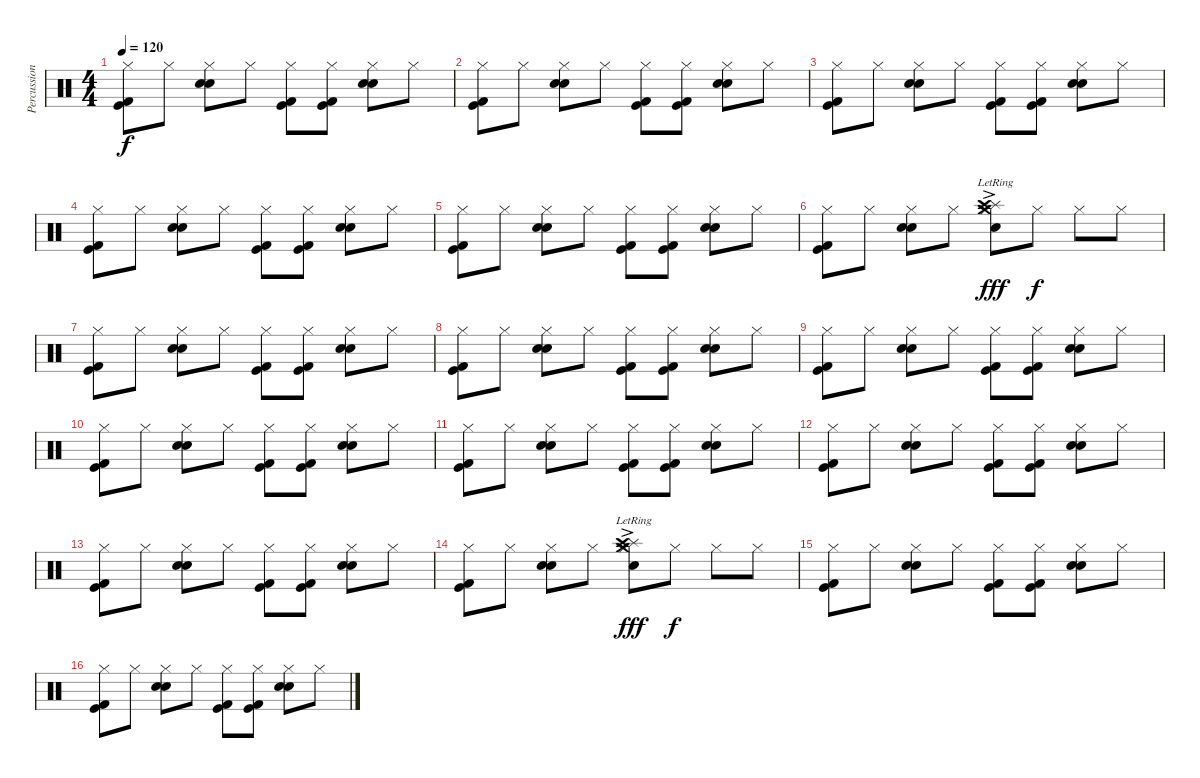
\track ("Percussions" "Percussion") {instrument percussion}
\staff {score}
\articulation defaults
\ts (4 4)
\tempo 120
\clef neutral
\ks c
("Hi-Hat (closed)" "Kick (hit)" "Kick (hit) 2").8{dy f} "Hi-Hat (closed)".8 ("Hi-Hat (closed)" "Snare (hit) 2" "Electric Snare (hit)").8 "Hi-Hat (closed)".8 ("Hi-Hat (closed)" "Kick (hit)" "Kick (hit) 2").8 ("Hi-Hat (closed)" "Kick (hit)" "Kick (hit) 2").8 ("Hi-Hat (closed)" "Snare (hit) 2" "Electric Snare (hit)").8 "Hi-Hat (closed)".8 |
("Hi-Hat (closed)" "Kick (hit)" "Kick (hit) 2").8 "Hi-Hat (closed)".8 ("Hi-Hat (closed)" "Snare (hit) 2" "Electric Snare (hit)").8 "Hi-Hat (closed)".8 ("Hi-Hat (closed)" "Kick (hit)" "Kick (hit) 2").8 ("Hi-Hat (closed)" "Kick (hit)" "Kick (hit) 2").8 ("Hi-Hat (closed)" "Snare (hit) 2" "Electric Snare (hit)").8 "Hi-Hat (closed)".8 |
("Hi-Hat (closed)" "Kick (hit)" "Kick (hit) 2").8 "Hi-Hat (closed)".8 ("Hi-Hat (closed)" "Snare (hit) 2" "Electric Snare (hit)").8 "Hi-Hat (closed)".8 ("Hi-Hat (closed)" "Kick (hit)" "Kick (hit) 2").8 ("Hi-Hat (closed)" "Kick (hit)" "Kick (hit) 2").8 ("Hi-Hat (closed)" "Snare (hit) 2" "Electric Snare (hit)").8 "Hi-Hat (closed)".8 |
("Hi-Hat (closed)" "Kick (hit)" "Kick (hit) 2").8 "Hi-Hat (closed)".8 ("Hi-Hat (closed)" "Snare (hit) 2" "Electric Snare (hit)").8 "Hi-Hat (closed)".8 ("Hi-Hat (closed)" "Kick (hit)" "Kick (hit) 2").8 ("Hi-Hat (closed)" "Kick (hit)" "Kick (hit) 2").8 ("Hi-Hat (closed)" "Snare (hit) 2" "Electric Snare (hit)").8 "Hi-Hat (closed)".8 |
("Hi-Hat (closed)" "Kick (hit)" "Kick (hit) 2").8 "Hi-Hat (closed)".8 ("Hi-Hat (closed)" "Snare (hit) 2" "Electric Snare (hit)").8 "Hi-Hat (closed)".8 ("Hi-Hat (closed)" "Kick (hit)" "Kick (hit) 2").8 ("Hi-Hat (closed)" "Kick (hit)" "Kick (hit) 2").8 ("Hi-Hat (closed)" "Snare (hit) 2" "Electric Snare (hit)").8 "Hi-Hat (closed)".8 |
("Hi-Hat (closed)" "Kick (hit)" "Kick (hit) 2").8 "Hi-Hat (closed)".8 ("Hi-Hat (closed)" "Snare (hit) 2" "Electric Snare (hit)").8 "Hi-Hat (closed)".8 ("Hi-Hat (closed)" "Splash (hit)" "Crash medium (hit)" "Crash high (hit)"{ac lr} "Snare (hit)").8{dy fff} "Hi-Hat (closed)".8{dy f} "Hi-Hat (closed)".8 "Hi-Hat (closed)".8 |
("Hi-Hat (closed)" "Kick (hit)" "Kick (hit) 2").8 "Hi-Hat (closed)".8 ("Hi-Hat (closed)" "Snare (hit) 2" "Electric Snare (hit)").8 "Hi-Hat (closed)".8 ("Hi-Hat (closed)" "Kick (hit)" "Kick (hit) 2").8 ("Hi-Hat (closed)" "Kick (hit)" "Kick (hit) 2").8 ("Hi-Hat (closed)" "Snare (hit) 2" "Electric Snare (hit)").8 "Hi-Hat (closed)".8 |
("Hi-Hat (closed)" "Kick (hit)" "Kick (hit) 2").8 "Hi-Hat (closed)".8 ("Hi-Hat (closed)" "Snare (hit) 2" "Electric Snare (hit)").8 "Hi-Hat (closed)".8 ("Hi-Hat (closed)" "Kick (hit)" "Kick (hit) 2").8 ("Hi-Hat (closed)" "Kick (hit)" "Kick (hit) 2").8 ("Hi-Hat (closed)" "Snare (hit) 2" "Electric Snare (hit)").8 "Hi-Hat (closed)".8 |
("Hi-Hat (closed)" "Kick (hit)" "Kick (hit) 2").8 "Hi-Hat (closed)".8 ("Hi-Hat (closed)" "Snare (hit) 2" "Electric Snare (hit)").8 "Hi-Hat (closed)".8 ("Hi-Hat (closed)" "Kick (hit)" "Kick (hit) 2").8 ("Hi-Hat (closed)" "Kick (hit)" "Kick (hit) 2").8 ("Hi-Hat (closed)" "Snare (hit) 2" "Electric Snare (hit)").8 "Hi-Hat (closed)".8 |
("Hi-Hat (closed)" "Kick (hit)" "Kick (hit) 2").8 "Hi-Hat (closed)".8 ("Hi-Hat (closed)" "Snare (hit) 2" "Electric Snare (hit)").8 "Hi-Hat (closed)".8 ("Hi-Hat (closed)" "Kick (hit)" "Kick (hit) 2").8 ("Hi-Hat (closed)" "Kick (hit)" "Kick (hit) 2").8 ("Hi-Hat (closed)" "Snare (hit) 2" "Electric Snare (hit)").8 "Hi-Hat (closed)".8 |
("Hi-Hat (closed)" "Kick (hit)" "Kick (hit) 2").8 "Hi-Hat (closed)".8 ("Hi-Hat (closed)" "Snare (hit) 2" "Electric Snare (hit)").8 "Hi-Hat (closed)".8 ("Hi-Hat (closed)" "Kick (hit)" "Kick (hit) 2").8 ("Hi-Hat (closed)" "Kick (hit)" "Kick (hit) 2").8 ("Hi-Hat (closed)" "Snare (hit) 2" "Electric Snare (hit)").8 "Hi-Hat (closed)".8 |
("Hi-Hat (closed)" "Kick (hit)" "Kick (hit) 2").8 "Hi-Hat (closed)".8 ("Hi-Hat (closed)" "Snare (hit) 2" "Electric Snare (hit)").8 "Hi-Hat (closed)".8 ("Hi-Hat (closed)" "Kick (hit)" "Kick (hit) 2").8 ("Hi-Hat (closed)" "Kick (hit)" "Kick (hit) 2").8 ("Hi-Hat (closed)" "Snare (hit) 2" "Electric Snare (hit)").8 "Hi-Hat (closed)".8 |
("Hi-Hat (closed)" "Kick (hit)" "Kick (hit) 2").8 "Hi-Hat (closed)".8 ("Hi-Hat (closed)" "Snare (hit) 2" "Electric Snare (hit)").8 "Hi-Hat (closed)".8 ("Hi-Hat (closed)" "Kick (hit)" "Kick (hit) 2").8 ("Hi-Hat (closed)" "Kick (hit)" "Kick (hit) 2").8 ("Hi-Hat (closed)" "Snare (hit) 2" "Electric Snare (hit)").8 "Hi-Hat (closed)".8 |
("Hi-Hat (closed)" "Kick (hit)" "Kick (hit) 2").8 "Hi-Hat (closed)".8 ("Hi-Hat (closed)" "Snare (hit) 2" "Electric Snare (hit)").8 "Hi-Hat (closed)".8 ("Hi-Hat (closed)" "Splash (hit)" "Crash medium (hit)" "Crash high (hit)"{ac lr} "Snare (hit)").8{dy fff} "Hi-Hat (closed)".8{dy f} "Hi-Hat (closed)".8 "Hi-Hat (closed)".8 |
("Hi-Hat (closed)" "Kick (hit)" "Kick (hit) 2").8 "Hi-Hat (closed)".8 ("Hi-Hat (closed)" "Snare (hit) 2" "Electric Snare (hit)").8 "Hi-Hat (closed)".8 ("Hi-Hat (closed)" "Kick (hit)" "Kick (hit) 2").8 ("Hi-Hat (closed)" "Kick (hit)" "Kick (hit) 2").8 ("Hi-Hat (closed)" "Snare (hit) 2" "Electric Snare (hit)").8 "Hi-Hat (closed)".8 |
("Hi-Hat (closed)" "Kick (hit)" "Kick (hit) 2").8 "Hi-Hat (closed)".8 ("Hi-Hat (closed)" "Snare (hit) 2" "Electric Snare (hit)").8 "Hi-Hat (closed)".8 ("Hi-Hat (closed)" "Kick (hit)" "Kick (hit) 2").8 ("Hi-Hat (closed)" "Kick (hit)" "Kick (hit) 2").8 ("Hi-Hat (closed)" "Snare (hit) 2" "Electric Snare (hit)").8 "Hi-Hat (closed)".8
